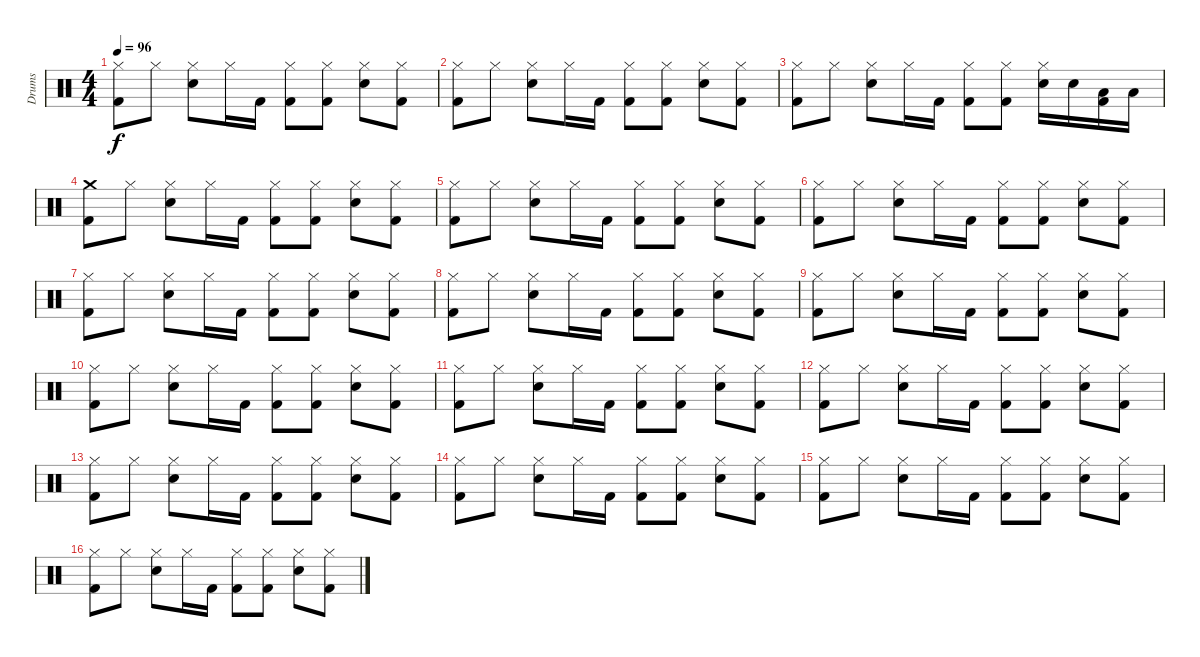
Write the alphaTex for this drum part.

\track ("Drums" "Drums") {instrument percussion}
\staff {score}
\articulation defaults
\ts (4 4)
\tempo 96
\clef neutral
\ks c
("Hi-Hat (closed)" "Kick (hit) 2").8{dy f} "Hi-Hat (closed)".8 ("Hi-Hat (closed)" "Snare (hit) 2").8 "Hi-Hat (closed)".16 "Kick (hit) 2".16 ("Hi-Hat (closed)" "Kick (hit) 2").8 ("Hi-Hat (closed)" "Kick (hit) 2").8 ("Hi-Hat (closed)" "Snare (hit) 2").8 ("Hi-Hat (closed)" "Kick (hit) 2").8 |
("Hi-Hat (closed)" "Kick (hit) 2").8 "Hi-Hat (closed)".8 ("Hi-Hat (closed)" "Snare (hit) 2").8 "Hi-Hat (closed)".16 "Kick (hit) 2".16 ("Hi-Hat (closed)" "Kick (hit) 2").8 ("Hi-Hat (closed)" "Kick (hit) 2").8 ("Hi-Hat (closed)" "Snare (hit) 2").8 ("Hi-Hat (closed)" "Kick (hit) 2").8 |
("Hi-Hat (closed)" "Kick (hit) 2").8 "Hi-Hat (closed)".8 ("Hi-Hat (closed)" "Snare (hit) 2").8 "Hi-Hat (closed)".16 "Kick (hit) 2".16 ("Hi-Hat (closed)" "Kick (hit) 2").8 ("Hi-Hat (closed)" "Kick (hit) 2").8 ("Hi-Hat (closed)" "Snare (hit) 2").16 "Snare (hit) 2".16 ("Low Tom (hit)" "Kick (hit) 2").16 "Low Tom (hit)".16 |
("Crash medium (hit)" "Kick (hit) 2").8 "Hi-Hat (closed)".8 ("Hi-Hat (closed)" "Snare (hit) 2").8 "Hi-Hat (closed)".16 "Kick (hit) 2".16 ("Hi-Hat (closed)" "Kick (hit) 2").8 ("Hi-Hat (closed)" "Kick (hit) 2").8 ("Hi-Hat (closed)" "Snare (hit) 2").8 ("Hi-Hat (closed)" "Kick (hit) 2").8 |
("Hi-Hat (closed)" "Kick (hit) 2").8 "Hi-Hat (closed)".8 ("Hi-Hat (closed)" "Snare (hit) 2").8 "Hi-Hat (closed)".16 "Kick (hit) 2".16 ("Hi-Hat (closed)" "Kick (hit) 2").8 ("Hi-Hat (closed)" "Kick (hit) 2").8 ("Hi-Hat (closed)" "Snare (hit) 2").8 ("Hi-Hat (closed)" "Kick (hit) 2").8 |
("Hi-Hat (closed)" "Kick (hit) 2").8 "Hi-Hat (closed)".8 ("Hi-Hat (closed)" "Snare (hit) 2").8 "Hi-Hat (closed)".16 "Kick (hit) 2".16 ("Hi-Hat (closed)" "Kick (hit) 2").8 ("Hi-Hat (closed)" "Kick (hit) 2").8 ("Hi-Hat (closed)" "Snare (hit) 2").8 ("Hi-Hat (closed)" "Kick (hit) 2").8 |
("Hi-Hat (closed)" "Kick (hit) 2").8 "Hi-Hat (closed)".8 ("Hi-Hat (closed)" "Snare (hit) 2").8 "Hi-Hat (closed)".16 "Kick (hit) 2".16 ("Hi-Hat (closed)" "Kick (hit) 2").8 ("Hi-Hat (closed)" "Kick (hit) 2").8 ("Hi-Hat (closed)" "Snare (hit) 2").8 ("Hi-Hat (closed)" "Kick (hit) 2").8 |
("Hi-Hat (closed)" "Kick (hit) 2").8 "Hi-Hat (closed)".8 ("Hi-Hat (closed)" "Snare (hit) 2").8 "Hi-Hat (closed)".16 "Kick (hit) 2".16 ("Hi-Hat (closed)" "Kick (hit) 2").8 ("Hi-Hat (closed)" "Kick (hit) 2").8 ("Hi-Hat (closed)" "Snare (hit) 2").8 ("Hi-Hat (closed)" "Kick (hit) 2").8 |
("Hi-Hat (closed)" "Kick (hit) 2").8 "Hi-Hat (closed)".8 ("Hi-Hat (closed)" "Snare (hit) 2").8 "Hi-Hat (closed)".16 "Kick (hit) 2".16 ("Hi-Hat (closed)" "Kick (hit) 2").8 ("Hi-Hat (closed)" "Kick (hit) 2").8 ("Hi-Hat (closed)" "Snare (hit) 2").8 ("Hi-Hat (closed)" "Kick (hit) 2").8 |
("Hi-Hat (closed)" "Kick (hit) 2").8 "Hi-Hat (closed)".8 ("Hi-Hat (closed)" "Snare (hit) 2").8 "Hi-Hat (closed)".16 "Kick (hit) 2".16 ("Hi-Hat (closed)" "Kick (hit) 2").8 ("Hi-Hat (closed)" "Kick (hit) 2").8 ("Hi-Hat (closed)" "Snare (hit) 2").8 ("Hi-Hat (closed)" "Kick (hit) 2").8 |
("Hi-Hat (closed)" "Kick (hit) 2").8 "Hi-Hat (closed)".8 ("Hi-Hat (closed)" "Snare (hit) 2").8 "Hi-Hat (closed)".16 "Kick (hit) 2".16 ("Hi-Hat (closed)" "Kick (hit) 2").8 ("Hi-Hat (closed)" "Kick (hit) 2").8 ("Hi-Hat (closed)" "Snare (hit) 2").8 ("Hi-Hat (closed)" "Kick (hit) 2").8 |
("Hi-Hat (closed)" "Kick (hit) 2").8 "Hi-Hat (closed)".8 ("Hi-Hat (closed)" "Snare (hit) 2").8 "Hi-Hat (closed)".16 "Kick (hit) 2".16 ("Hi-Hat (closed)" "Kick (hit) 2").8 ("Hi-Hat (closed)" "Kick (hit) 2").8 ("Hi-Hat (closed)" "Snare (hit) 2").8 ("Hi-Hat (closed)" "Kick (hit) 2").8 |
("Hi-Hat (closed)" "Kick (hit) 2").8 "Hi-Hat (closed)".8 ("Hi-Hat (closed)" "Snare (hit) 2").8 "Hi-Hat (closed)".16 "Kick (hit) 2".16 ("Hi-Hat (closed)" "Kick (hit) 2").8 ("Hi-Hat (closed)" "Kick (hit) 2").8 ("Hi-Hat (closed)" "Snare (hit) 2").8 ("Hi-Hat (closed)" "Kick (hit) 2").8 |
("Hi-Hat (closed)" "Kick (hit) 2").8 "Hi-Hat (closed)".8 ("Hi-Hat (closed)" "Snare (hit) 2").8 "Hi-Hat (closed)".16 "Kick (hit) 2".16 ("Hi-Hat (closed)" "Kick (hit) 2").8 ("Hi-Hat (closed)" "Kick (hit) 2").8 ("Hi-Hat (closed)" "Snare (hit) 2").8 ("Hi-Hat (closed)" "Kick (hit) 2").8 |
("Hi-Hat (closed)" "Kick (hit) 2").8 "Hi-Hat (closed)".8 ("Hi-Hat (closed)" "Snare (hit) 2").8 "Hi-Hat (closed)".16 "Kick (hit) 2".16 ("Hi-Hat (closed)" "Kick (hit) 2").8 ("Hi-Hat (closed)" "Kick (hit) 2").8 ("Hi-Hat (closed)" "Snare (hit) 2").8 ("Hi-Hat (closed)" "Kick (hit) 2").8 |
("Hi-Hat (closed)" "Kick (hit) 2").8 "Hi-Hat (closed)".8 ("Hi-Hat (closed)" "Snare (hit) 2").8 "Hi-Hat (closed)".16 "Kick (hit) 2".16 ("Hi-Hat (closed)" "Kick (hit) 2").8 ("Hi-Hat (closed)" "Kick (hit) 2").8 ("Hi-Hat (closed)" "Snare (hit) 2").8 ("Hi-Hat (closed)" "Kick (hit) 2").8
